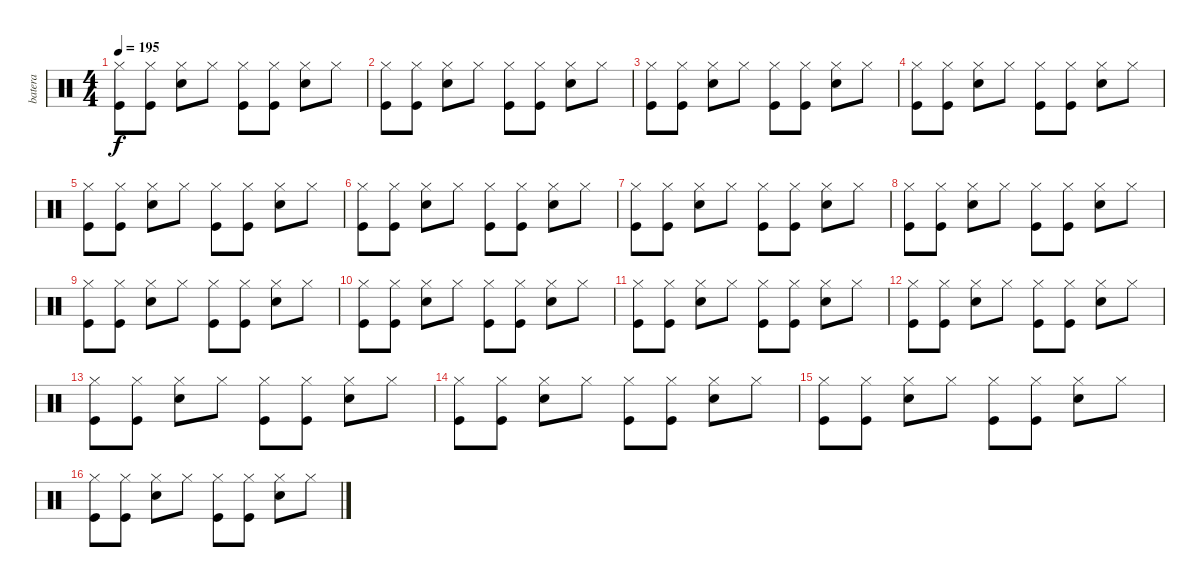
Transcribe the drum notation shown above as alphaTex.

\track ("batera" "batera") {instrument percussion}
\staff {score}
\articulation defaults
\ts (4 4)
\tempo 195
\clef neutral
\ks c
("Hi-Hat (closed)" "Kick (hit)").8{dy f} ("Hi-Hat (closed)" "Kick (hit)").8 ("Hi-Hat (closed)" "Snare (hit) 2").8 "Hi-Hat (closed)".8 ("Hi-Hat (closed)" "Kick (hit)").8 ("Hi-Hat (closed)" "Kick (hit)").8 ("Hi-Hat (closed)" "Snare (hit) 2").8 "Hi-Hat (closed)".8 |
("Hi-Hat (closed)" "Kick (hit)").8 ("Hi-Hat (closed)" "Kick (hit)").8 ("Hi-Hat (closed)" "Snare (hit) 2").8 "Hi-Hat (closed)".8 ("Hi-Hat (closed)" "Kick (hit)").8 ("Hi-Hat (closed)" "Kick (hit)").8 ("Hi-Hat (closed)" "Snare (hit) 2").8 "Hi-Hat (closed)".8 |
("Hi-Hat (closed)" "Kick (hit)").8 ("Hi-Hat (closed)" "Kick (hit)").8 ("Hi-Hat (closed)" "Snare (hit) 2").8 "Hi-Hat (closed)".8 ("Hi-Hat (closed)" "Kick (hit)").8 ("Hi-Hat (closed)" "Kick (hit)").8 ("Hi-Hat (closed)" "Snare (hit) 2").8 "Hi-Hat (closed)".8 |
("Hi-Hat (closed)" "Kick (hit)").8 ("Hi-Hat (closed)" "Kick (hit)").8 ("Hi-Hat (closed)" "Snare (hit) 2").8 "Hi-Hat (closed)".8 ("Hi-Hat (closed)" "Kick (hit)").8 ("Hi-Hat (closed)" "Kick (hit)").8 ("Hi-Hat (closed)" "Snare (hit) 2").8 "Hi-Hat (closed)".8 |
("Hi-Hat (closed)" "Kick (hit)").8 ("Hi-Hat (closed)" "Kick (hit)").8 ("Hi-Hat (closed)" "Snare (hit) 2").8 "Hi-Hat (closed)".8 ("Hi-Hat (closed)" "Kick (hit)").8 ("Hi-Hat (closed)" "Kick (hit)").8 ("Hi-Hat (closed)" "Snare (hit) 2").8 "Hi-Hat (closed)".8 |
("Hi-Hat (closed)" "Kick (hit)").8 ("Hi-Hat (closed)" "Kick (hit)").8 ("Hi-Hat (closed)" "Snare (hit) 2").8 "Hi-Hat (closed)".8 ("Hi-Hat (closed)" "Kick (hit)").8 ("Hi-Hat (closed)" "Kick (hit)").8 ("Hi-Hat (closed)" "Snare (hit) 2").8 "Hi-Hat (closed)".8 |
("Hi-Hat (closed)" "Kick (hit)").8 ("Hi-Hat (closed)" "Kick (hit)").8 ("Hi-Hat (closed)" "Snare (hit) 2").8 "Hi-Hat (closed)".8 ("Hi-Hat (closed)" "Kick (hit)").8 ("Hi-Hat (closed)" "Kick (hit)").8 ("Hi-Hat (closed)" "Snare (hit) 2").8 "Hi-Hat (closed)".8 |
("Hi-Hat (closed)" "Kick (hit)").8 ("Hi-Hat (closed)" "Kick (hit)").8 ("Hi-Hat (closed)" "Snare (hit) 2").8 "Hi-Hat (closed)".8 ("Hi-Hat (closed)" "Kick (hit)").8 ("Hi-Hat (closed)" "Kick (hit)").8 ("Hi-Hat (closed)" "Snare (hit) 2").8 "Hi-Hat (closed)".8 |
("Hi-Hat (closed)" "Kick (hit)").8 ("Hi-Hat (closed)" "Kick (hit)").8 ("Hi-Hat (closed)" "Snare (hit) 2").8 "Hi-Hat (closed)".8 ("Hi-Hat (closed)" "Kick (hit)").8 ("Hi-Hat (closed)" "Kick (hit)").8 ("Hi-Hat (closed)" "Snare (hit) 2").8 "Hi-Hat (closed)".8 |
("Hi-Hat (closed)" "Kick (hit)").8 ("Hi-Hat (closed)" "Kick (hit)").8 ("Hi-Hat (closed)" "Snare (hit) 2").8 "Hi-Hat (closed)".8 ("Hi-Hat (closed)" "Kick (hit)").8 ("Hi-Hat (closed)" "Kick (hit)").8 ("Hi-Hat (closed)" "Snare (hit) 2").8 "Hi-Hat (closed)".8 |
("Hi-Hat (closed)" "Kick (hit)").8 ("Hi-Hat (closed)" "Kick (hit)").8 ("Hi-Hat (closed)" "Snare (hit) 2").8 "Hi-Hat (closed)".8 ("Hi-Hat (closed)" "Kick (hit)").8 ("Hi-Hat (closed)" "Kick (hit)").8 ("Hi-Hat (closed)" "Snare (hit) 2").8 "Hi-Hat (closed)".8 |
("Hi-Hat (closed)" "Kick (hit)").8 ("Hi-Hat (closed)" "Kick (hit)").8 ("Hi-Hat (closed)" "Snare (hit) 2").8 "Hi-Hat (closed)".8 ("Hi-Hat (closed)" "Kick (hit)").8 ("Hi-Hat (closed)" "Kick (hit)").8 ("Hi-Hat (closed)" "Snare (hit) 2").8 "Hi-Hat (closed)".8 |
("Hi-Hat (closed)" "Kick (hit)").8 ("Hi-Hat (closed)" "Kick (hit)").8 ("Hi-Hat (closed)" "Snare (hit) 2").8 "Hi-Hat (closed)".8 ("Hi-Hat (closed)" "Kick (hit)").8 ("Hi-Hat (closed)" "Kick (hit)").8 ("Hi-Hat (closed)" "Snare (hit) 2").8 "Hi-Hat (closed)".8 |
("Hi-Hat (closed)" "Kick (hit)").8 ("Hi-Hat (closed)" "Kick (hit)").8 ("Hi-Hat (closed)" "Snare (hit) 2").8 "Hi-Hat (closed)".8 ("Hi-Hat (closed)" "Kick (hit)").8 ("Hi-Hat (closed)" "Kick (hit)").8 ("Hi-Hat (closed)" "Snare (hit) 2").8 "Hi-Hat (closed)".8 |
("Hi-Hat (closed)" "Kick (hit)").8 ("Hi-Hat (closed)" "Kick (hit)").8 ("Hi-Hat (closed)" "Snare (hit) 2").8 "Hi-Hat (closed)".8 ("Hi-Hat (closed)" "Kick (hit)").8 ("Hi-Hat (closed)" "Kick (hit)").8 ("Hi-Hat (closed)" "Snare (hit) 2").8 "Hi-Hat (closed)".8 |
("Hi-Hat (closed)" "Kick (hit)").8 ("Hi-Hat (closed)" "Kick (hit)").8 ("Hi-Hat (closed)" "Snare (hit) 2").8 "Hi-Hat (closed)".8 ("Hi-Hat (closed)" "Kick (hit)").8 ("Hi-Hat (closed)" "Kick (hit)").8 ("Hi-Hat (closed)" "Snare (hit) 2").8 "Hi-Hat (closed)".8
